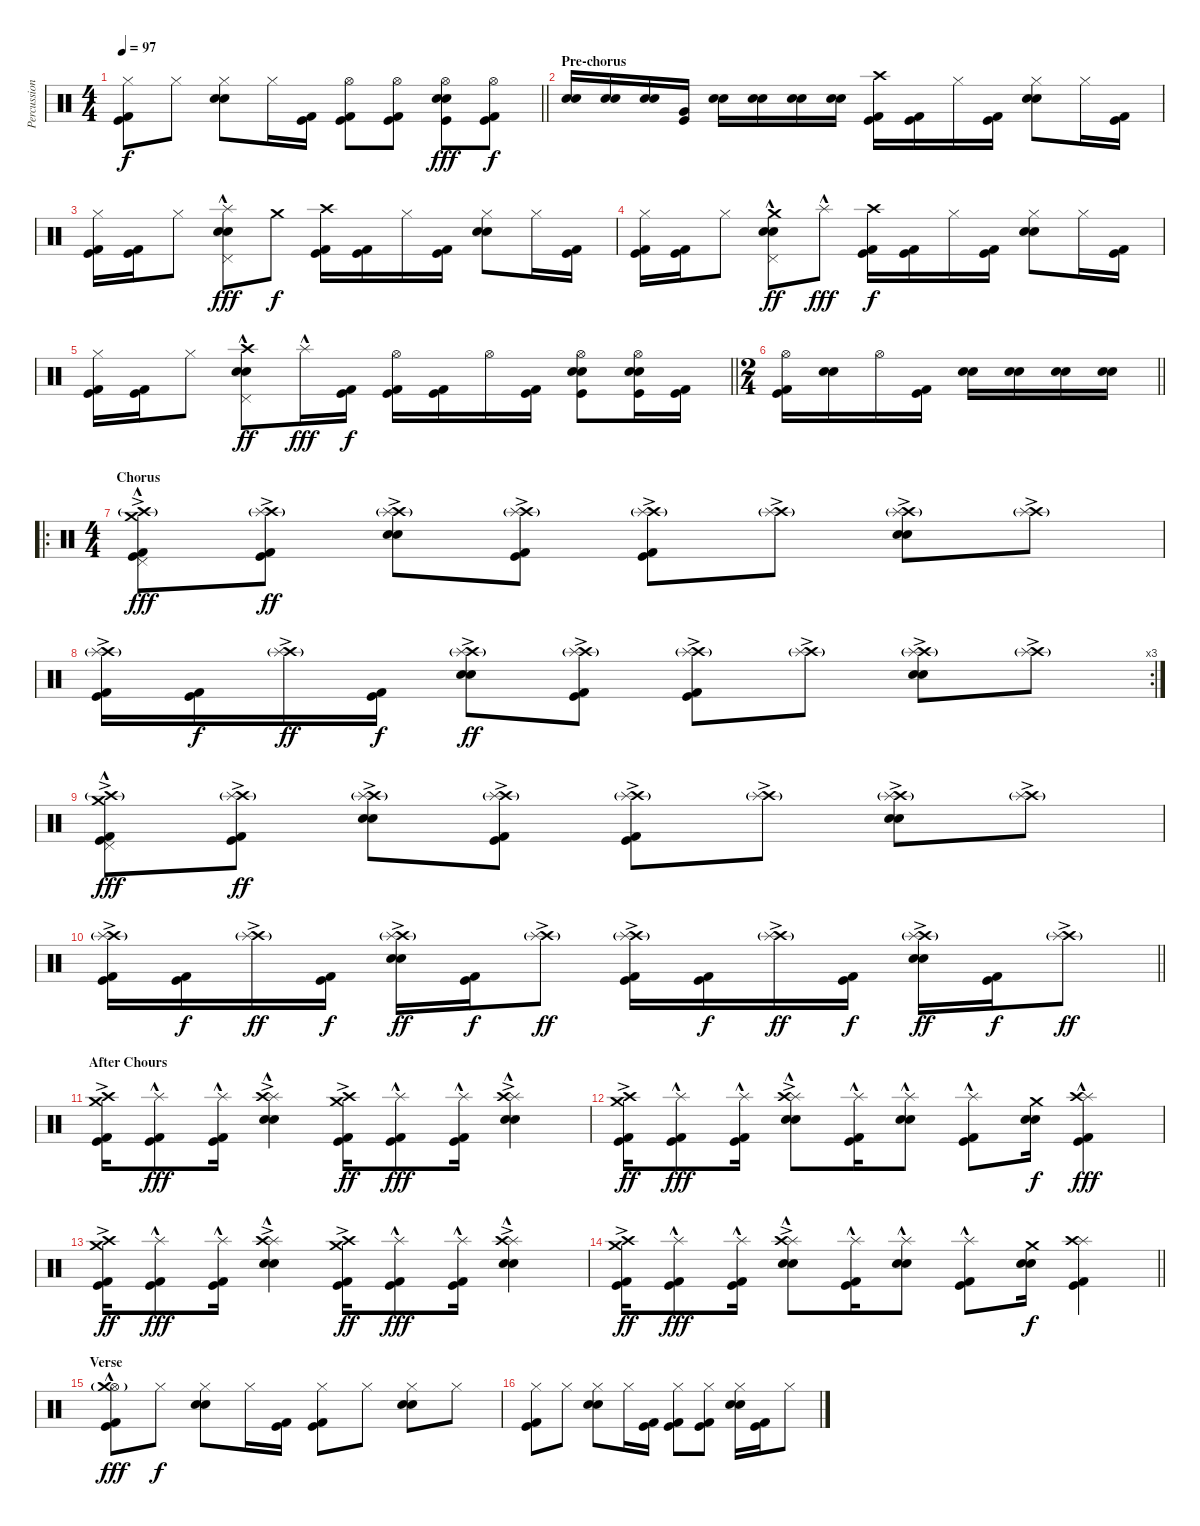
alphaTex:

\track ("Percussion" "Percussion") {instrument percussion}
\staff {score}
\articulation defaults
\ts (4 4)
\tempo 97
\clef neutral
\barLineRight lightlight
\ks c
("Kick (hit) 2" "Kick (hit)" "Hi-Hat (closed)").8{dy f} "Hi-Hat (closed)".8 ("Electric Snare (hit)" "Snare (hit) 2" "Hi-Hat (closed)").8 "Hi-Hat (closed)".16 ("Kick (hit) 2" "Kick (hit)").16 ("Kick (hit) 2" "Kick (hit)" "Hi-Hat (open)").8 ("Kick (hit) 2" "Kick (hit)" "Hi-Hat (open)").8 ("Kick (hit)" "Electric Snare (hit)" "Snare (hit) 2" "Hi-Hat (open)").8{dy fff} ("Kick (hit) 2" "Kick (hit)" "Hi-Hat (open)").8{dy f} |
\section ("" "Pre-chorus")
("Electric Snare (hit)" "Snare (hit) 2").16 ("Electric Snare (hit)" "Snare (hit) 2").16 ("Electric Snare (hit)" "Snare (hit) 2").16 ("Kick (hit)" "Very Low Tom (hit)").16 ("Electric Snare (hit)" "Snare (hit) 2").16 ("Electric Snare (hit)" "Snare (hit) 2").16 ("Electric Snare (hit)" "Snare (hit) 2").16 ("Electric Snare (hit)" "Snare (hit) 2").16 ("Kick (hit) 2" "Kick (hit)" "Crash high (hit)").16 ("Kick (hit) 2" "Kick (hit)").16 "Hi-Hat (closed)".16 ("Kick (hit) 2" "Kick (hit)").16 ("Electric Snare (hit)" "Snare (hit) 2" "Hi-Hat (closed)").8 "Hi-Hat (closed)".16 ("Kick (hit) 2" "Kick (hit)").16 |
("Kick (hit) 2" "Kick (hit)" "Hi-Hat (closed)").16 ("Kick (hit) 2" "Kick (hit)").16 "Hi-Hat (closed)".8 ("Electric Snare (hit)" "Snare (hit) 2" "Pedal Hi-Hat (hit)" "Splash (hit)"{hac}).8{dy fff} "Crash medium (hit)".8{dy f} ("Kick (hit) 2" "Kick (hit)" "Crash high (hit)").16 ("Kick (hit) 2" "Kick (hit)").16 "Hi-Hat (closed)".16 ("Kick (hit) 2" "Kick (hit)").16 ("Electric Snare (hit)" "Snare (hit) 2" "Hi-Hat (closed)").8 "Hi-Hat (closed)".16 ("Kick (hit) 2" "Kick (hit)").16 |
("Kick (hit) 2" "Kick (hit)" "Hi-Hat (closed)").16 ("Kick (hit) 2" "Kick (hit)").16 "Hi-Hat (closed)".8 ("Electric Snare (hit)" "Snare (hit) 2" "Pedal Hi-Hat (hit)" "Crash medium (hit)"{hac}).8{dy ff} "Splash (hit)"{hac}.8{dy fff} ("Kick (hit) 2" "Kick (hit)" "Crash high (hit)").16{dy f} ("Kick (hit) 2" "Kick (hit)").16 "Hi-Hat (closed)".16 ("Kick (hit) 2" "Kick (hit)").16 ("Electric Snare (hit)" "Snare (hit) 2" "Hi-Hat (closed)").8 "Hi-Hat (closed)".16 ("Kick (hit) 2" "Kick (hit)").16 |
\barLineRight lightlight
("Kick (hit) 2" "Kick (hit)" "Hi-Hat (closed)").16 ("Kick (hit) 2" "Kick (hit)").16 "Hi-Hat (closed)".8 ("Electric Snare (hit)" "Snare (hit) 2" "Pedal Hi-Hat (hit)" "Crash high (hit)"{hac}).8{dy ff} "Splash (hit)"{hac}.16{dy fff} ("Kick (hit) 2" "Kick (hit)").16{dy f} ("Kick (hit) 2" "Kick (hit)" "Hi-Hat (open)").16 ("Kick (hit) 2" "Kick (hit)").16 "Hi-Hat (open)".16 ("Kick (hit) 2" "Kick (hit)").16 ("Kick (hit)" "Electric Snare (hit)" "Snare (hit) 2" "Hi-Hat (open)").8 ("Kick (hit)" "Electric Snare (hit)" "Snare (hit) 2" "Hi-Hat (open)").16 ("Kick (hit) 2" "Kick (hit)").16 |
\ts (2 4)
\barLineRight lightlight
("Kick (hit) 2" "Kick (hit)" "Hi-Hat (open)").16 ("Electric Snare (hit)" "Snare (hit) 2").16 "Hi-Hat (open)".16 ("Kick (hit) 2" "Kick (hit)").16 ("Electric Snare (hit)" "Snare (hit) 2").16 ("Electric Snare (hit)" "Snare (hit) 2").16 ("Electric Snare (hit)" "Snare (hit) 2").16 ("Electric Snare (hit)" "Snare (hit) 2").16 |
\ro
\ts (4 4)
\section ("" "Chorus")
("Kick (hit) 2"{ac} "Kick (hit)" "Pedal Hi-Hat (hit)" "Crash high (hit)"{g} "Crash medium (hit)"{hac}).8{dy fff} ("Kick (hit) 2" "Kick (hit)" "Crash high (hit)"{g} "Splash (hit)"{ac}).8{dy ff} ("Electric Snare (hit)" "Snare (hit) 2" "Crash high (hit)"{g} "Splash (hit)"{ac}).8 ("Kick (hit) 2" "Kick (hit)" "Crash high (hit)"{g} "Splash (hit)"{ac}).8 ("Kick (hit) 2" "Kick (hit)" "Crash high (hit)"{g} "Splash (hit)"{ac}).8 ("Crash high (hit)"{g} "Splash (hit)"{ac}).8 ("Electric Snare (hit)" "Snare (hit) 2" "Crash high (hit)"{g} "Splash (hit)"{ac}).8 ("Crash high (hit)"{g} "Splash (hit)"{ac}).8 |
\rc 3
("Kick (hit) 2" "Kick (hit)" "Crash high (hit)"{g} "Splash (hit)"{ac}).16 ("Kick (hit) 2" "Kick (hit)").16{dy f} ("Crash high (hit)"{g} "Splash (hit)"{ac}).16{dy ff} ("Kick (hit) 2" "Kick (hit)").16{dy f} ("Electric Snare (hit)" "Snare (hit) 2" "Crash high (hit)"{g} "Splash (hit)"{ac}).8{dy ff} ("Kick (hit) 2" "Kick (hit)" "Crash high (hit)"{g} "Splash (hit)"{ac}).8 ("Kick (hit) 2" "Kick (hit)" "Crash high (hit)"{g} "Splash (hit)"{ac}).8 ("Crash high (hit)"{g} "Splash (hit)"{ac}).8 ("Electric Snare (hit)" "Snare (hit) 2" "Crash high (hit)"{g} "Splash (hit)"{ac}).8 ("Crash high (hit)"{g} "Splash (hit)"{ac}).8 |
("Kick (hit) 2"{ac} "Kick (hit)" "Pedal Hi-Hat (hit)" "Crash high (hit)"{g} "Crash medium (hit)"{hac}).8{dy fff} ("Kick (hit) 2" "Kick (hit)" "Crash high (hit)"{g} "Splash (hit)"{ac}).8{dy ff} ("Electric Snare (hit)" "Snare (hit) 2" "Crash high (hit)"{g} "Splash (hit)"{ac}).8 ("Kick (hit) 2" "Kick (hit)" "Crash high (hit)"{g} "Splash (hit)"{ac}).8 ("Kick (hit) 2" "Kick (hit)" "Crash high (hit)"{g} "Splash (hit)"{ac}).8 ("Crash high (hit)"{g} "Splash (hit)"{ac}).8 ("Electric Snare (hit)" "Snare (hit) 2" "Crash high (hit)"{g} "Splash (hit)"{ac}).8 ("Crash high (hit)"{g} "Splash (hit)"{ac}).8 |
\barLineRight lightlight
("Kick (hit) 2" "Kick (hit)" "Crash high (hit)"{g} "Splash (hit)"{ac}).16 ("Kick (hit) 2" "Kick (hit)").16{dy f} ("Crash high (hit)"{g} "Splash (hit)"{ac}).16{dy ff} ("Kick (hit) 2" "Kick (hit)").16{dy f} ("Electric Snare (hit)" "Snare (hit) 2" "Crash high (hit)"{g} "Splash (hit)"{ac}).16{dy ff} ("Kick (hit) 2" "Kick (hit)").16{dy f} ("Crash high (hit)"{g} "Splash (hit)"{ac}).8{dy ff} ("Kick (hit) 2" "Kick (hit)" "Crash high (hit)"{g} "Splash (hit)"{ac}).16 ("Kick (hit) 2" "Kick (hit)").16{dy f} ("Crash high (hit)"{g} "Splash (hit)"{ac}).16{dy ff} ("Kick (hit) 2" "Kick (hit)").16{dy f} ("Electric Snare (hit)" "Snare (hit) 2" "Crash high (hit)"{g} "Splash (hit)"{ac}).16{dy ff} ("Kick (hit) 2" "Kick (hit)").16{dy f} ("Crash high (hit)"{g} "Splash (hit)"{ac}).8{dy ff} |
\section ("" "After Chours")
("Kick (hit) 2" "Kick (hit)" "Crash high (hit)"{ac} "Crash medium (hit)"{ac}).16 ("Kick (hit) 2" "Kick (hit)" "Splash (hit)"{hac}).8{dy fff} ("Kick (hit) 2" "Kick (hit)" "Splash (hit)"{hac}).16 ("Electric Snare (hit)" "Snare (hit) 2" "Splash (hit)"{ac} "Crash high (hit)"{hac}).4 ("Kick (hit) 2" "Kick (hit)" "Crash high (hit)"{ac} "Crash medium (hit)"{ac}).16{dy ff} ("Kick (hit) 2" "Kick (hit)" "Splash (hit)"{hac}).8{dy fff} ("Kick (hit) 2" "Kick (hit)" "Splash (hit)"{hac}).16 ("Electric Snare (hit)" "Snare (hit) 2" "Splash (hit)"{ac} "Crash high (hit)"{hac}).4 |
("Kick (hit) 2" "Kick (hit)" "Crash high (hit)"{ac} "Crash medium (hit)"{ac}).16{dy ff} ("Kick (hit) 2" "Kick (hit)" "Splash (hit)"{hac}).8{dy fff} ("Kick (hit) 2" "Kick (hit)" "Splash (hit)"{hac}).16 ("Electric Snare (hit)" "Snare (hit) 2" "Splash (hit)"{ac} "Crash high (hit)"{hac}).8 ("Kick (hit) 2" "Kick (hit)" "Splash (hit)"{hac}).16 ("Electric Snare (hit)" "Snare (hit) 2" "Splash (hit)"{hac}).8 ("Kick (hit) 2" "Kick (hit)" "Splash (hit)"{hac}).8 ("Electric Snare (hit)" "Snare (hit) 2" "Crash medium (hit)").16{dy f} ("Kick (hit) 2" "Kick (hit)" "Splash (hit)"{hac} "Crash high (hit)").4{dy fff} |
("Kick (hit) 2" "Kick (hit)" "Crash high (hit)"{ac} "Crash medium (hit)"{ac}).16{dy ff} ("Kick (hit) 2" "Kick (hit)" "Splash (hit)"{hac}).8{dy fff} ("Kick (hit) 2" "Kick (hit)" "Splash (hit)"{hac}).16 ("Electric Snare (hit)" "Snare (hit) 2" "Splash (hit)"{ac} "Crash high (hit)"{hac}).4 ("Kick (hit) 2" "Kick (hit)" "Crash high (hit)"{ac} "Crash medium (hit)"{ac}).16{dy ff} ("Kick (hit) 2" "Kick (hit)" "Splash (hit)"{hac}).8{dy fff} ("Kick (hit) 2" "Kick (hit)" "Splash (hit)"{hac}).16 ("Electric Snare (hit)" "Snare (hit) 2" "Splash (hit)"{ac} "Crash high (hit)"{hac}).4 |
\barLineRight lightlight
("Kick (hit) 2" "Kick (hit)" "Crash high (hit)"{ac} "Crash medium (hit)"{ac}).16{dy ff} ("Kick (hit) 2" "Kick (hit)" "Splash (hit)"{hac}).8{dy fff} ("Kick (hit) 2" "Kick (hit)" "Splash (hit)"{hac}).16 ("Electric Snare (hit)" "Snare (hit) 2" "Splash (hit)"{ac} "Crash high (hit)"{hac}).8 ("Kick (hit) 2" "Kick (hit)" "Splash (hit)"{hac}).16 ("Electric Snare (hit)" "Snare (hit) 2" "Splash (hit)"{hac}).8 ("Kick (hit) 2" "Kick (hit)" "Splash (hit)"{hac}).8 ("Electric Snare (hit)" "Snare (hit) 2" "Crash medium (hit)").16{dy f} ("Kick (hit) 2" "Kick (hit)" "Splash (hit)" "Crash high (hit)").4 |
\section ("" "Verse")
("Kick (hit) 2" "Kick (hit)" "Hi-Hat (open)"{g} "Crash medium (hit)"{hac}).8{dy fff} "Hi-Hat (closed)".8{dy f} ("Electric Snare (hit)" "Snare (hit) 2" "Hi-Hat (closed)").8 "Hi-Hat (closed)".16 ("Kick (hit) 2" "Kick (hit)").16 ("Kick (hit) 2" "Kick (hit)" "Hi-Hat (closed)").8 "Hi-Hat (closed)".8 ("Electric Snare (hit)" "Snare (hit) 2" "Hi-Hat (closed)").8 "Hi-Hat (closed)".8 |
("Kick (hit) 2" "Kick (hit)" "Hi-Hat (closed)").8 "Hi-Hat (closed)".8 ("Electric Snare (hit)" "Snare (hit) 2" "Hi-Hat (closed)").8 "Hi-Hat (closed)".16 ("Kick (hit) 2" "Kick (hit)").16 ("Kick (hit) 2" "Kick (hit)" "Hi-Hat (closed)").8 ("Kick (hit) 2" "Kick (hit)" "Hi-Hat (closed)").8 ("Electric Snare (hit)" "Snare (hit) 2" "Hi-Hat (closed)").16 ("Kick (hit) 2" "Kick (hit)").16 "Hi-Hat (closed)".8
